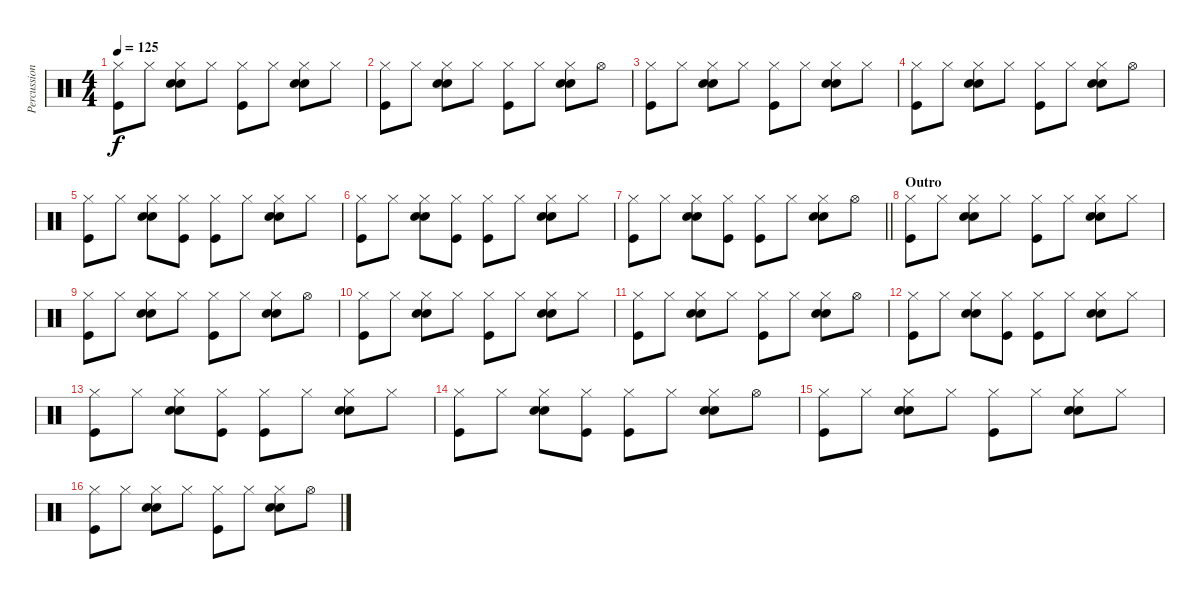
\track ("Percussion" "Percussion") {instrument percussion}
\staff {score}
\articulation defaults
\ts (4 4)
\tempo 125
\clef neutral
\ks c
("Hi-Hat (closed)" "Kick (hit)").8{dy f} "Hi-Hat (closed)".8 ("Hi-Hat (closed)" "Hand Clap (hit)" "Snare (hit) 2").8 "Hi-Hat (closed)".8 ("Hi-Hat (closed)" "Kick (hit)").8 "Hi-Hat (closed)".8 ("Hi-Hat (closed)" "Hand Clap (hit)" "Snare (hit) 2").8 "Hi-Hat (closed)".8 |
("Hi-Hat (closed)" "Kick (hit)").8 "Hi-Hat (closed)".8 ("Hi-Hat (closed)" "Hand Clap (hit)" "Snare (hit) 2").8 "Hi-Hat (closed)".8 ("Hi-Hat (closed)" "Kick (hit)").8 "Hi-Hat (closed)".8 ("Hi-Hat (closed)" "Hand Clap (hit)" "Snare (hit) 2").8 "Hi-Hat (open)".8 |
("Hi-Hat (closed)" "Kick (hit)").8 "Hi-Hat (closed)".8 ("Hi-Hat (closed)" "Hand Clap (hit)" "Snare (hit) 2").8 "Hi-Hat (closed)".8 ("Hi-Hat (closed)" "Kick (hit)").8 "Hi-Hat (closed)".8 ("Hi-Hat (closed)" "Hand Clap (hit)" "Snare (hit) 2").8 "Hi-Hat (closed)".8 |
("Hi-Hat (closed)" "Kick (hit)").8 "Hi-Hat (closed)".8 ("Hi-Hat (closed)" "Hand Clap (hit)" "Snare (hit) 2").8 "Hi-Hat (closed)".8 ("Hi-Hat (closed)" "Kick (hit)").8 "Hi-Hat (closed)".8 ("Hi-Hat (closed)" "Hand Clap (hit)" "Snare (hit) 2").8 "Hi-Hat (open)".8 |
("Hi-Hat (closed)" "Kick (hit)").8 "Hi-Hat (closed)".8 ("Hi-Hat (closed)" "Hand Clap (hit)" "Snare (hit) 2").8 ("Hi-Hat (closed)" "Kick (hit)").8 ("Hi-Hat (closed)" "Kick (hit)").8 "Hi-Hat (closed)".8 ("Hi-Hat (closed)" "Hand Clap (hit)" "Snare (hit) 2").8 "Hi-Hat (closed)".8 |
("Hi-Hat (closed)" "Kick (hit)").8 "Hi-Hat (closed)".8 ("Hi-Hat (closed)" "Hand Clap (hit)" "Snare (hit) 2").8 ("Hi-Hat (closed)" "Kick (hit)").8 ("Hi-Hat (closed)" "Kick (hit)").8 "Hi-Hat (closed)".8 ("Hi-Hat (closed)" "Hand Clap (hit)" "Snare (hit) 2").8 "Hi-Hat (closed)".8 |
\barLineRight lightlight
("Hi-Hat (closed)" "Kick (hit)").8 "Hi-Hat (closed)".8 ("Hi-Hat (closed)" "Hand Clap (hit)" "Snare (hit) 2").8 ("Hi-Hat (closed)" "Kick (hit)").8 ("Hi-Hat (closed)" "Kick (hit)").8 "Hi-Hat (closed)".8 ("Hi-Hat (closed)" "Hand Clap (hit)" "Snare (hit) 2").8 "Hi-Hat (open)".8 |
\section ("" "Outro")
("Hi-Hat (closed)" "Kick (hit)").8 "Hi-Hat (closed)".8 ("Hi-Hat (closed)" "Hand Clap (hit)" "Snare (hit) 2").8 "Hi-Hat (closed)".8 ("Hi-Hat (closed)" "Kick (hit)").8 "Hi-Hat (closed)".8 ("Hi-Hat (closed)" "Hand Clap (hit)" "Snare (hit) 2").8 "Hi-Hat (closed)".8 |
("Hi-Hat (closed)" "Kick (hit)").8 "Hi-Hat (closed)".8 ("Hi-Hat (closed)" "Hand Clap (hit)" "Snare (hit) 2").8 "Hi-Hat (closed)".8 ("Hi-Hat (closed)" "Kick (hit)").8 "Hi-Hat (closed)".8 ("Hi-Hat (closed)" "Hand Clap (hit)" "Snare (hit) 2").8 "Hi-Hat (open)".8 |
("Hi-Hat (closed)" "Kick (hit)").8 "Hi-Hat (closed)".8 ("Hi-Hat (closed)" "Hand Clap (hit)" "Snare (hit) 2").8 "Hi-Hat (closed)".8 ("Hi-Hat (closed)" "Kick (hit)").8 "Hi-Hat (closed)".8 ("Hi-Hat (closed)" "Hand Clap (hit)" "Snare (hit) 2").8 "Hi-Hat (closed)".8 |
("Hi-Hat (closed)" "Kick (hit)").8 "Hi-Hat (closed)".8 ("Hi-Hat (closed)" "Hand Clap (hit)" "Snare (hit) 2").8 "Hi-Hat (closed)".8 ("Hi-Hat (closed)" "Kick (hit)").8 "Hi-Hat (closed)".8 ("Hi-Hat (closed)" "Hand Clap (hit)" "Snare (hit) 2").8 "Hi-Hat (open)".8 |
("Hi-Hat (closed)" "Kick (hit)").8 "Hi-Hat (closed)".8 ("Hi-Hat (closed)" "Hand Clap (hit)" "Snare (hit) 2").8 ("Hi-Hat (closed)" "Kick (hit)").8 ("Hi-Hat (closed)" "Kick (hit)").8 "Hi-Hat (closed)".8 ("Hi-Hat (closed)" "Hand Clap (hit)" "Snare (hit) 2").8 "Hi-Hat (closed)".8 |
("Hi-Hat (closed)" "Kick (hit)").8 "Hi-Hat (closed)".8 ("Hi-Hat (closed)" "Hand Clap (hit)" "Snare (hit) 2").8 ("Hi-Hat (closed)" "Kick (hit)").8 ("Hi-Hat (closed)" "Kick (hit)").8 "Hi-Hat (closed)".8 ("Hi-Hat (closed)" "Hand Clap (hit)" "Snare (hit) 2").8 "Hi-Hat (closed)".8 |
("Hi-Hat (closed)" "Kick (hit)").8 "Hi-Hat (closed)".8 ("Hi-Hat (closed)" "Hand Clap (hit)" "Snare (hit) 2").8 ("Hi-Hat (closed)" "Kick (hit)").8 ("Hi-Hat (closed)" "Kick (hit)").8 "Hi-Hat (closed)".8 ("Hi-Hat (closed)" "Hand Clap (hit)" "Snare (hit) 2").8 "Hi-Hat (open)".8 |
("Hi-Hat (closed)" "Kick (hit)").8 "Hi-Hat (closed)".8 ("Hi-Hat (closed)" "Hand Clap (hit)" "Snare (hit) 2").8 "Hi-Hat (closed)".8 ("Hi-Hat (closed)" "Kick (hit)").8 "Hi-Hat (closed)".8 ("Hi-Hat (closed)" "Hand Clap (hit)" "Snare (hit) 2").8 "Hi-Hat (closed)".8 |
("Hi-Hat (closed)" "Kick (hit)").8 "Hi-Hat (closed)".8 ("Hi-Hat (closed)" "Hand Clap (hit)" "Snare (hit) 2").8 "Hi-Hat (closed)".8 ("Hi-Hat (closed)" "Kick (hit)").8 "Hi-Hat (closed)".8 ("Hi-Hat (closed)" "Hand Clap (hit)" "Snare (hit) 2").8 "Hi-Hat (open)".8
